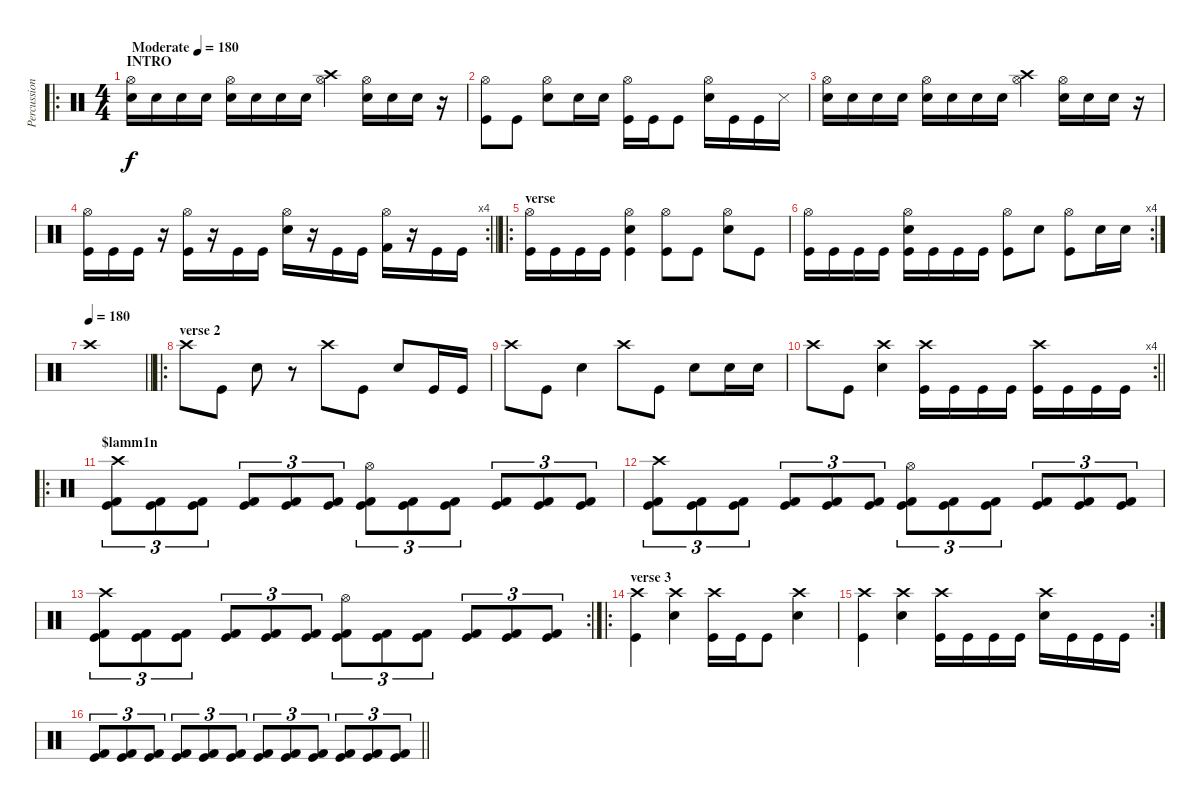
\track ("Percussion" "Percussion") {instrument percussion}
\staff {score}
\articulation defaults
\ro
\ts (4 4)
\section ("" "INTRO")
\tempo (180 "Moderate")
\clef neutral
\ks c
("Hi-Hat (open)" "Snare (hit) 2").16{dy f} "Snare (hit) 2".16 "Snare (hit) 2".16 "Snare (hit) 2".16 ("Hi-Hat (open)" "Snare (hit) 2").16 "Snare (hit) 2".16 "Snare (hit) 2".16 "Snare (hit) 2".16 ("Hi-Hat (open)" "Crash high (hit)").4 ("Hi-Hat (open)" "Snare (hit) 2").16 "Snare (hit) 2".16 "Snare (hit) 2".16 r.16 |
("Hi-Hat (open)" "Kick (hit)").8 "Kick (hit)".8 ("Hi-Hat (open)" "Snare (hit) 2").8 "Snare (hit) 2".16 "Snare (hit) 2".16 ("Hi-Hat (open)" "Kick (hit)").16 "Kick (hit)".16 "Kick (hit)".8 ("Hi-Hat (open)" "Snare (hit) 2").16 "Kick (hit)".16 "Kick (hit)".16 "Snare (side stick) 3".16 |
("Hi-Hat (open)" "Snare (hit) 2").16 "Snare (hit) 2".16 "Snare (hit) 2".16 "Snare (hit) 2".16 ("Hi-Hat (open)" "Snare (hit) 2").16 "Snare (hit) 2".16 "Snare (hit) 2".16 "Snare (hit) 2".16 ("Hi-Hat (open)" "Crash high (hit)").4 ("Hi-Hat (open)" "Snare (hit) 2").16 "Snare (hit) 2".16 "Snare (hit) 2".16 r.16 |
\rc 4
\barLineRight lightlight
("Hi-Hat (open)" "Kick (hit)").16 "Kick (hit)".16 "Kick (hit)".16 r.16 ("Hi-Hat (open)" "Kick (hit)").16 r.16 "Kick (hit)".16 "Kick (hit)".16 ("Hi-Hat (open)" "Snare (hit) 2").16 r.16 "Kick (hit)".16 "Kick (hit)".16 ("Hi-Hat (open)" "Kick (hit) 2").16 r.16 "Kick (hit)".16 "Kick (hit)".16 |
\ro
\section ("" "verse")
("Hi-Hat (open)" "Kick (hit)").16 "Kick (hit)".16 "Kick (hit)".16 "Kick (hit)".16 ("Snare (hit) 2" "Hi-Hat (open)" "Kick (hit)").4 ("Hi-Hat (open)" "Kick (hit)").8 "Kick (hit)".8 ("Hi-Hat (open)" "Snare (hit) 2").8 "Kick (hit)".8 |
\rc 4
("Hi-Hat (open)" "Kick (hit)").16 "Kick (hit)".16 "Kick (hit)".16 "Kick (hit)".16 ("Snare (hit) 2" "Hi-Hat (open)" "Kick (hit)").16 "Kick (hit)".16 "Kick (hit)".16 "Kick (hit)".16 ("Hi-Hat (open)" "Kick (hit)").8 "Snare (hit) 2".8 ("Hi-Hat (open)" "Kick (hit)").8 "Snare (hit) 2".16 "Snare (hit) 2".16 |
\tempo 180
\barLineRight lightlight "Crash high (hit)".1
|
\ro
\section ("" "verse 2")
"Crash high (hit)".8 "Kick (hit)".8 "Snare (hit) 2".8 r.8 "Crash high (hit)".8 "Kick (hit)".8 "Snare (hit) 2".8 "Kick (hit)".16 "Kick (hit)".16 |
"Crash high (hit)".8 "Kick (hit)".8 "Snare (hit) 2".4 "Crash high (hit)".8 "Kick (hit)".8 "Snare (hit) 2".8 "Snare (hit) 2".16 "Snare (hit) 2".16 |
\rc 4
\barLineRight lightlight "Crash high (hit)".8 "Kick (hit)".8
("Crash high (hit)" "Snare (hit) 2").4 ("Crash high (hit)" "Kick (hit)").16 "Kick (hit)".16 "Kick (hit)".16 "Kick (hit)".16 ("Crash high (hit)" "Kick (hit)").16 "Kick (hit)".16 "Kick (hit)".16 "Kick (hit)".16 |
\ro
\section ("" "$lamm1n ")
("Crash high (hit)" "Kick (hit)" "Kick (hit) 2").8{tu (3 2)} ("Kick (hit)" "Kick (hit) 2").8{tu (3 2)} ("Kick (hit)" "Kick (hit) 2").8{tu (3 2)} ("Kick (hit)" "Kick (hit) 2").8{tu (3 2)} ("Kick (hit) 2" "Kick (hit)").8{tu (3 2)} ("Kick (hit) 2" "Kick (hit)").8{tu (3 2)} ("Hi-Hat (open)" "Kick (hit)" "Kick (hit) 2").8{tu (3 2)} ("Kick (hit)" "Kick (hit) 2").8{tu (3 2)} ("Kick (hit)" "Kick (hit) 2").8{tu (3 2)} ("Kick (hit)" "Kick (hit) 2").8{tu (3 2)} ("Kick (hit) 2" "Kick (hit)").8{tu (3 2)} ("Kick (hit) 2" "Kick (hit)").8{tu (3 2)} |
("Crash high (hit)" "Kick (hit)" "Kick (hit) 2").8{tu (3 2)} ("Kick (hit)" "Kick (hit) 2").8{tu (3 2)} ("Kick (hit)" "Kick (hit) 2").8{tu (3 2)} ("Kick (hit)" "Kick (hit) 2").8{tu (3 2)} ("Kick (hit) 2" "Kick (hit)").8{tu (3 2)} ("Kick (hit) 2" "Kick (hit)").8{tu (3 2)} ("Hi-Hat (open)" "Kick (hit)" "Kick (hit) 2").8{tu (3 2)} ("Kick (hit)" "Kick (hit) 2").8{tu (3 2)} ("Kick (hit)" "Kick (hit) 2").8{tu (3 2)} ("Kick (hit)" "Kick (hit) 2").8{tu (3 2)} ("Kick (hit) 2" "Kick (hit)").8{tu (3 2)} ("Kick (hit) 2" "Kick (hit)").8{tu (3 2)} |
\rc 2
("Crash high (hit)" "Kick (hit)" "Kick (hit) 2").8{tu (3 2)} ("Kick (hit)" "Kick (hit) 2").8{tu (3 2)} ("Kick (hit)" "Kick (hit) 2").8{tu (3 2)} ("Kick (hit)" "Kick (hit) 2").8{tu (3 2)} ("Kick (hit) 2" "Kick (hit)").8{tu (3 2)} ("Kick (hit) 2" "Kick (hit)").8{tu (3 2)} ("Hi-Hat (open)" "Kick (hit)" "Kick (hit) 2").8{tu (3 2)} ("Kick (hit)" "Kick (hit) 2").8{tu (3 2)} ("Kick (hit)" "Kick (hit) 2").8{tu (3 2)} ("Kick (hit)" "Kick (hit) 2").8{tu (3 2)} ("Kick (hit) 2" "Kick (hit)").8{tu (3 2)} ("Kick (hit) 2" "Kick (hit)").8{tu (3 2)} |
\ro
\section ("" "verse 3")
("Kick (hit)" "Crash high (hit)").4 ("Snare (hit) 2" "Crash high (hit)").4 ("Kick (hit)" "Crash high (hit)").16 "Kick (hit)".16 "Kick (hit)".8 ("Snare (hit) 2" "Crash high (hit)").4 |
\rc 2
("Kick (hit)" "Crash high (hit)").4 ("Snare (hit) 2" "Crash high (hit)").4 ("Kick (hit)" "Crash high (hit)").16 "Kick (hit)".16 "Kick (hit)".16 "Kick (hit)".16 ("Snare (hit) 2" "Crash high (hit)").16 "Kick (hit)".16 "Kick (hit)".16 "Kick (hit)".16 |
\barLineRight lightlight
("Kick (hit)" "Kick (hit) 2").8{tu (3 2)} ("Kick (hit)" "Kick (hit) 2").8{tu (3 2)} ("Kick (hit)" "Kick (hit) 2").8{tu (3 2)} ("Kick (hit)" "Kick (hit) 2").8{tu (3 2)} ("Kick (hit) 2" "Kick (hit)").8{tu (3 2)} ("Kick (hit) 2" "Kick (hit)").8{tu (3 2)} ("Kick (hit)" "Kick (hit) 2").8{tu (3 2)} ("Kick (hit)" "Kick (hit) 2").8{tu (3 2)} ("Kick (hit)" "Kick (hit) 2").8{tu (3 2)} ("Kick (hit)" "Kick (hit) 2").8{tu (3 2)} ("Kick (hit) 2" "Kick (hit)").8{tu (3 2)} ("Kick (hit) 2" "Kick (hit)").8{tu (3 2)}
